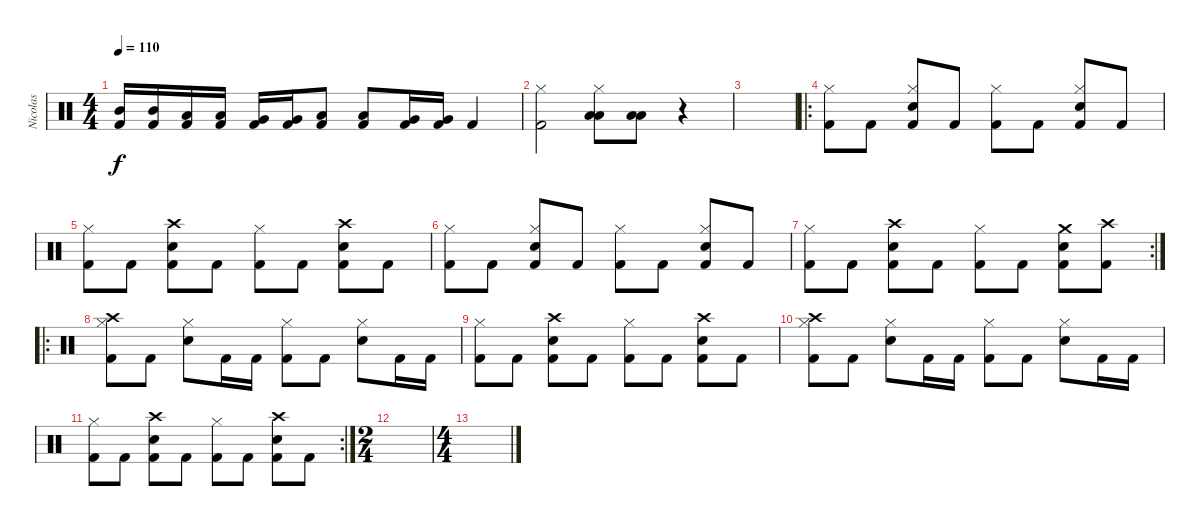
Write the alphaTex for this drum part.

\track ("Nicolas" "Nicolas") {instrument percussion}
\staff {score}
\articulation defaults
\ts (4 4)
\tempo 110
\clef neutral
\ks c
("Mid Tom (hit)" "Kick (hit) 2").16{dy f} ("Mid Tom (hit)" "Kick (hit) 2").16 ("Low Tom (hit)" "Kick (hit) 2").16 ("Low Tom (hit)" "Kick (hit) 2").16 ("Very Low Tom (hit)" "Kick (hit) 2").16 ("Very Low Tom (hit)" "Kick (hit) 2").16 ("Low Floor Tom (hit)" "Kick (hit) 2").8 ("Low Floor Tom (hit)" "Kick (hit) 2").8 ("Very Low Tom (hit)" "Kick (hit) 2").16 ("Very Low Tom (hit)" "Kick (hit) 2").16 "Kick (hit) 2".4 |
("Kick (hit) 2" "Hi-Hat (closed)").2 ("Low Floor Tom (hit)" "Low Tom (hit)" "Hi-Hat (closed)").8 ("Low Floor Tom (hit)" "Low Tom (hit)").8 r.4 |
|
\ro
("Kick (hit) 2" "Hi-Hat (closed)").8 "Kick (hit) 2".8 ("Kick (hit) 2" "Snare (hit) 2" "Hi-Hat (closed)").8 "Kick (hit) 2".8 ("Kick (hit) 2" "Hi-Hat (closed)").8 "Kick (hit) 2".8 ("Kick (hit) 2" "Snare (hit) 2" "Hi-Hat (closed)").8 "Kick (hit) 2".8 |
("Kick (hit) 2" "Hi-Hat (closed)").8 "Kick (hit) 2".8 ("Kick (hit) 2" "Snare (hit) 2" "Crash high (hit)").8 "Kick (hit) 2".8 ("Kick (hit) 2" "Hi-Hat (closed)").8 "Kick (hit) 2".8 ("Kick (hit) 2" "Snare (hit) 2" "Crash high (hit)").8 "Kick (hit) 2".8 |
("Kick (hit) 2" "Hi-Hat (closed)").8 "Kick (hit) 2".8 ("Kick (hit) 2" "Snare (hit) 2" "Hi-Hat (closed)").8 "Kick (hit) 2".8 ("Kick (hit) 2" "Hi-Hat (closed)").8 "Kick (hit) 2".8 ("Kick (hit) 2" "Snare (hit) 2" "Hi-Hat (closed)").8 "Kick (hit) 2".8 |
\rc 2
("Kick (hit) 2" "Hi-Hat (closed)").8 "Kick (hit) 2".8 ("Kick (hit) 2" "Snare (hit) 2" "Crash high (hit)").8 "Kick (hit) 2".8 ("Kick (hit) 2" "Hi-Hat (closed)").8 "Kick (hit) 2".8 ("Kick (hit) 2" "Snare (hit) 2" "Crash medium (hit)").8 ("Kick (hit) 2" "Crash high (hit)").8 |
\ro
("Crash high (hit)" "Hi-Hat (closed)" "Kick (hit) 2").8 "Kick (hit) 2".8 ("Hi-Hat (closed)" "Snare (hit) 2").8 "Kick (hit) 2".16 "Kick (hit) 2".16 ("Hi-Hat (closed)" "Kick (hit) 2").8 "Kick (hit) 2".8 ("Hi-Hat (closed)" "Snare (hit) 2").8 "Kick (hit) 2".16 "Kick (hit) 2".16 |
("Hi-Hat (closed)" "Kick (hit) 2").8 "Kick (hit) 2".8 ("Crash high (hit)" "Snare (hit) 2" "Kick (hit) 2").8 "Kick (hit) 2".8 ("Hi-Hat (closed)" "Kick (hit) 2").8 "Kick (hit) 2".8 ("Crash high (hit)" "Snare (hit) 2" "Kick (hit) 2").8 "Kick (hit) 2".8 |
("Crash high (hit)" "Hi-Hat (closed)" "Kick (hit) 2").8 "Kick (hit) 2".8 ("Hi-Hat (closed)" "Snare (hit) 2").8 "Kick (hit) 2".16 "Kick (hit) 2".16 ("Hi-Hat (closed)" "Kick (hit) 2").8 "Kick (hit) 2".8 ("Hi-Hat (closed)" "Snare (hit) 2").8 "Kick (hit) 2".16 "Kick (hit) 2".16 |
\rc 2
("Hi-Hat (closed)" "Kick (hit) 2").8 "Kick (hit) 2".8 ("Crash high (hit)" "Snare (hit) 2" "Kick (hit) 2").8 "Kick (hit) 2".8 ("Hi-Hat (closed)" "Kick (hit) 2").8 "Kick (hit) 2".8 ("Crash high (hit)" "Snare (hit) 2" "Kick (hit) 2").8 "Kick (hit) 2".8 |
\ts (2 4)
|
\ts (4 4)
